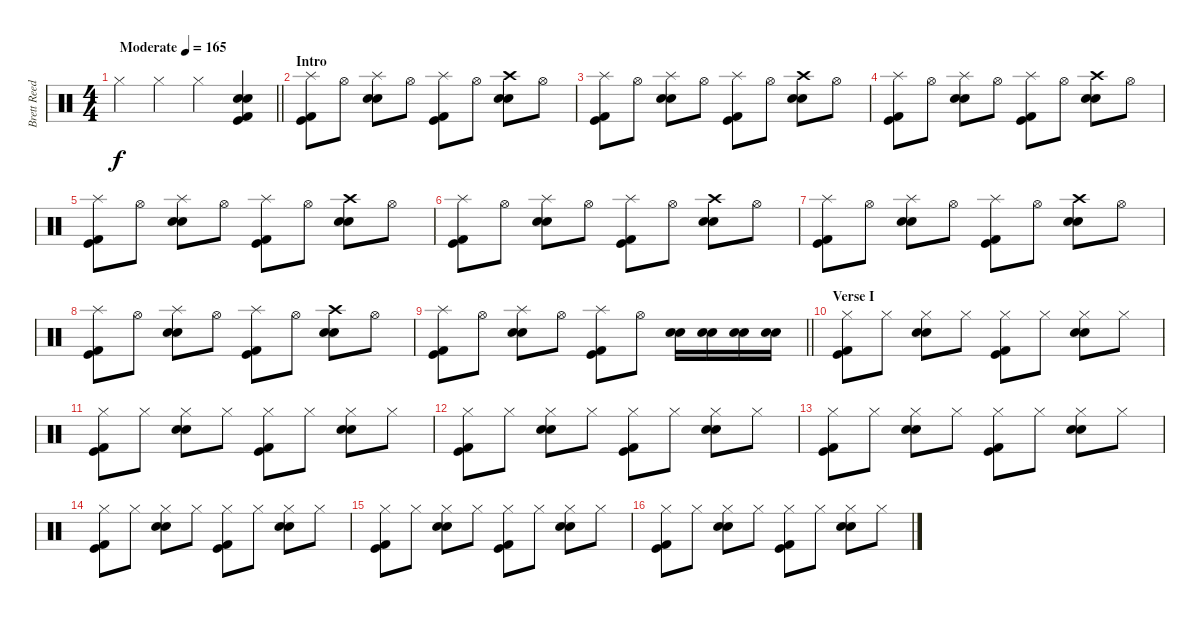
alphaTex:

\track ("Brett Reed" "Brett Reed") {instrument percussion}
\staff {score}
\articulation defaults
\ts (4 4)
\tempo (165 "Moderate")
\clef neutral
\barLineRight lightlight
\ks c "Hi-Hat (closed)".4{dy f} "Hi-Hat (closed)".4 "Hi-Hat (closed)".4
("Electric Snare (hit)" "Snare (hit) 2" "Kick (hit) 2" "Kick (hit)").4 |
\section ("" "Intro")
("Splash (hit)" "Kick (hit) 2" "Kick (hit)").8 "Hi-Hat (open)".8 ("Splash (hit)" "Electric Snare (hit)" "Snare (hit) 2").8 "Hi-Hat (open)".8 ("Splash (hit)" "Kick (hit) 2" "Kick (hit)").8 "Hi-Hat (open)".8 ("Crash high (hit)" "Electric Snare (hit)" "Snare (hit) 2").8 "Hi-Hat (open)".8 |
("Splash (hit)" "Kick (hit) 2" "Kick (hit)").8 "Hi-Hat (open)".8 ("Splash (hit)" "Electric Snare (hit)" "Snare (hit) 2").8 "Hi-Hat (open)".8 ("Splash (hit)" "Kick (hit) 2" "Kick (hit)").8 "Hi-Hat (open)".8 ("Crash high (hit)" "Electric Snare (hit)" "Snare (hit) 2").8 "Hi-Hat (open)".8 |
("Splash (hit)" "Kick (hit) 2" "Kick (hit)").8 "Hi-Hat (open)".8 ("Splash (hit)" "Electric Snare (hit)" "Snare (hit) 2").8 "Hi-Hat (open)".8 ("Splash (hit)" "Kick (hit) 2" "Kick (hit)").8 "Hi-Hat (open)".8 ("Crash high (hit)" "Electric Snare (hit)" "Snare (hit) 2").8 "Hi-Hat (open)".8 |
("Splash (hit)" "Kick (hit) 2" "Kick (hit)").8 "Hi-Hat (open)".8 ("Splash (hit)" "Electric Snare (hit)" "Snare (hit) 2").8 "Hi-Hat (open)".8 ("Splash (hit)" "Kick (hit) 2" "Kick (hit)").8 "Hi-Hat (open)".8 ("Crash high (hit)" "Electric Snare (hit)" "Snare (hit) 2").8 "Hi-Hat (open)".8 |
("Splash (hit)" "Kick (hit) 2" "Kick (hit)").8 "Hi-Hat (open)".8 ("Splash (hit)" "Electric Snare (hit)" "Snare (hit) 2").8 "Hi-Hat (open)".8 ("Splash (hit)" "Kick (hit) 2" "Kick (hit)").8 "Hi-Hat (open)".8 ("Crash high (hit)" "Electric Snare (hit)" "Snare (hit) 2").8 "Hi-Hat (open)".8 |
("Splash (hit)" "Kick (hit) 2" "Kick (hit)").8 "Hi-Hat (open)".8 ("Splash (hit)" "Electric Snare (hit)" "Snare (hit) 2").8 "Hi-Hat (open)".8 ("Splash (hit)" "Kick (hit) 2" "Kick (hit)").8 "Hi-Hat (open)".8 ("Crash high (hit)" "Electric Snare (hit)" "Snare (hit) 2").8 "Hi-Hat (open)".8 |
("Splash (hit)" "Kick (hit) 2" "Kick (hit)").8 "Hi-Hat (open)".8 ("Splash (hit)" "Electric Snare (hit)" "Snare (hit) 2").8 "Hi-Hat (open)".8 ("Splash (hit)" "Kick (hit) 2" "Kick (hit)").8 "Hi-Hat (open)".8 ("Crash high (hit)" "Electric Snare (hit)" "Snare (hit) 2").8 "Hi-Hat (open)".8 |
\barLineRight lightlight
("Splash (hit)" "Kick (hit) 2" "Kick (hit)").8 "Hi-Hat (open)".8 ("Splash (hit)" "Electric Snare (hit)" "Snare (hit) 2").8 "Hi-Hat (open)".8 ("Splash (hit)" "Kick (hit) 2" "Kick (hit)").8 "Hi-Hat (open)".8 ("Electric Snare (hit)" "Snare (hit) 2").16 ("Electric Snare (hit)" "Snare (hit) 2").16 ("Electric Snare (hit)" "Snare (hit) 2").16 ("Electric Snare (hit)" "Snare (hit) 2").16 |
\section ("" "Verse I")
("Hi-Hat (closed)" "Kick (hit) 2" "Kick (hit)").8 "Hi-Hat (closed)".8 ("Hi-Hat (closed)" "Electric Snare (hit)" "Snare (hit) 2").8 "Hi-Hat (closed)".8 ("Hi-Hat (closed)" "Kick (hit) 2" "Kick (hit)").8 "Hi-Hat (closed)".8 ("Hi-Hat (closed)" "Electric Snare (hit)" "Snare (hit) 2").8 "Hi-Hat (closed)".8 |
("Hi-Hat (closed)" "Kick (hit) 2" "Kick (hit)").8 "Hi-Hat (closed)".8 ("Hi-Hat (closed)" "Electric Snare (hit)" "Snare (hit) 2").8 "Hi-Hat (closed)".8 ("Hi-Hat (closed)" "Kick (hit) 2" "Kick (hit)").8 "Hi-Hat (closed)".8 ("Hi-Hat (closed)" "Electric Snare (hit)" "Snare (hit) 2").8 "Hi-Hat (closed)".8 |
("Hi-Hat (closed)" "Kick (hit) 2" "Kick (hit)").8 "Hi-Hat (closed)".8 ("Hi-Hat (closed)" "Electric Snare (hit)" "Snare (hit) 2").8 "Hi-Hat (closed)".8 ("Hi-Hat (closed)" "Kick (hit) 2" "Kick (hit)").8 "Hi-Hat (closed)".8 ("Hi-Hat (closed)" "Electric Snare (hit)" "Snare (hit) 2").8 "Hi-Hat (closed)".8 |
("Hi-Hat (closed)" "Kick (hit) 2" "Kick (hit)").8 "Hi-Hat (closed)".8 ("Hi-Hat (closed)" "Electric Snare (hit)" "Snare (hit) 2").8 "Hi-Hat (closed)".8 ("Hi-Hat (closed)" "Kick (hit) 2" "Kick (hit)").8 "Hi-Hat (closed)".8 ("Hi-Hat (closed)" "Electric Snare (hit)" "Snare (hit) 2").8 "Hi-Hat (closed)".8 |
("Hi-Hat (closed)" "Kick (hit) 2" "Kick (hit)").8 "Hi-Hat (closed)".8 ("Hi-Hat (closed)" "Electric Snare (hit)" "Snare (hit) 2").8 "Hi-Hat (closed)".8 ("Hi-Hat (closed)" "Kick (hit) 2" "Kick (hit)").8 "Hi-Hat (closed)".8 ("Hi-Hat (closed)" "Electric Snare (hit)" "Snare (hit) 2").8 "Hi-Hat (closed)".8 |
("Hi-Hat (closed)" "Kick (hit) 2" "Kick (hit)").8 "Hi-Hat (closed)".8 ("Hi-Hat (closed)" "Electric Snare (hit)" "Snare (hit) 2").8 "Hi-Hat (closed)".8 ("Hi-Hat (closed)" "Kick (hit) 2" "Kick (hit)").8 "Hi-Hat (closed)".8 ("Hi-Hat (closed)" "Electric Snare (hit)" "Snare (hit) 2").8 "Hi-Hat (closed)".8 |
("Hi-Hat (closed)" "Kick (hit) 2" "Kick (hit)").8 "Hi-Hat (closed)".8 ("Hi-Hat (closed)" "Electric Snare (hit)" "Snare (hit) 2").8 "Hi-Hat (closed)".8 ("Hi-Hat (closed)" "Kick (hit) 2" "Kick (hit)").8 "Hi-Hat (closed)".8 ("Hi-Hat (closed)" "Electric Snare (hit)" "Snare (hit) 2").8 "Hi-Hat (closed)".8
